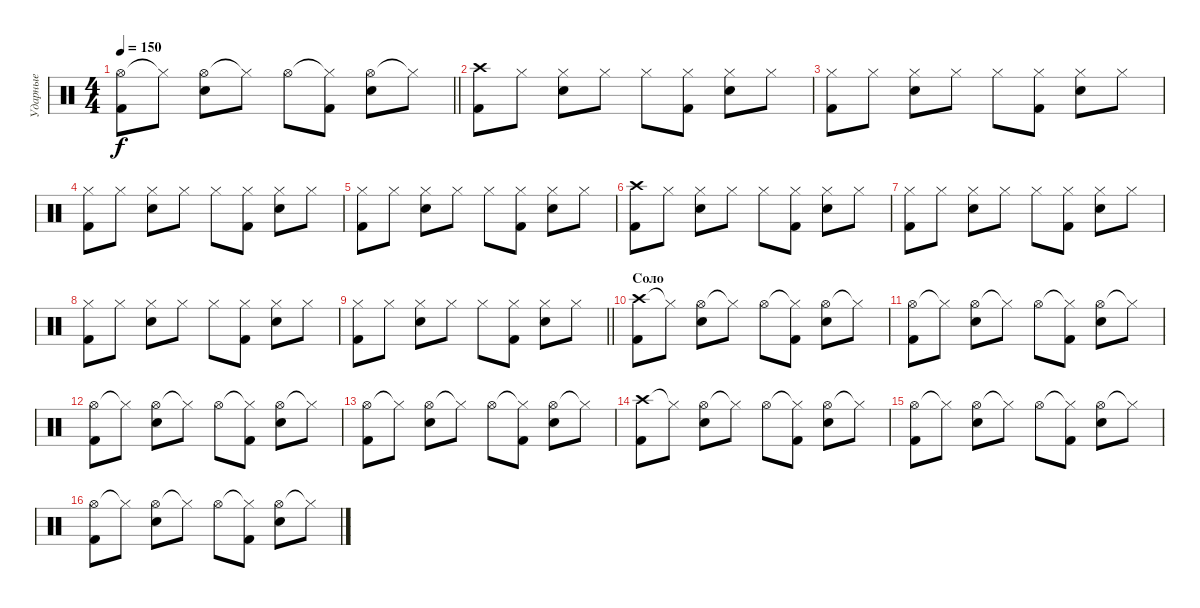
\track ("Ударные" "Ударные") {instrument percussion}
\staff {score}
\articulation defaults
\ts (4 4)
\tempo 150
\clef neutral
\barLineRight lightlight
\ks c
("Hi-Hat (open)" "Kick (hit) 2").8{dy f} "Hi-Hat (closed)"{t}.8 ("Hi-Hat (open)" "Snare (hit) 2").8 "Hi-Hat (closed)"{t}.8 "Hi-Hat (open)".8 ("Hi-Hat (closed)"{t} "Kick (hit) 2").8 ("Hi-Hat (open)" "Snare (hit) 2").8 "Hi-Hat (closed)"{t}.8 |
("Crash high (hit)" "Kick (hit) 2").8 "Hi-Hat (closed)".8 ("Hi-Hat (closed)" "Snare (hit) 2").8 "Hi-Hat (closed)".8 "Hi-Hat (closed)".8 ("Hi-Hat (closed)" "Kick (hit) 2").8 ("Hi-Hat (closed)" "Snare (hit) 2").8 "Hi-Hat (closed)".8 |
("Hi-Hat (closed)" "Kick (hit) 2").8 "Hi-Hat (closed)".8 ("Hi-Hat (closed)" "Snare (hit) 2").8 "Hi-Hat (closed)".8 "Hi-Hat (closed)".8 ("Hi-Hat (closed)" "Kick (hit) 2").8 ("Hi-Hat (closed)" "Snare (hit) 2").8 "Hi-Hat (closed)".8 |
("Hi-Hat (closed)" "Kick (hit) 2").8 "Hi-Hat (closed)".8 ("Hi-Hat (closed)" "Snare (hit) 2").8 "Hi-Hat (closed)".8 "Hi-Hat (closed)".8 ("Hi-Hat (closed)" "Kick (hit) 2").8 ("Hi-Hat (closed)" "Snare (hit) 2").8 "Hi-Hat (closed)".8 |
("Hi-Hat (closed)" "Kick (hit) 2").8 "Hi-Hat (closed)".8 ("Hi-Hat (closed)" "Snare (hit) 2").8 "Hi-Hat (closed)".8 "Hi-Hat (closed)".8 ("Hi-Hat (closed)" "Kick (hit) 2").8 ("Hi-Hat (closed)" "Snare (hit) 2").8 "Hi-Hat (closed)".8 |
("Crash high (hit)" "Kick (hit) 2").8 "Hi-Hat (closed)".8 ("Hi-Hat (closed)" "Snare (hit) 2").8 "Hi-Hat (closed)".8 "Hi-Hat (closed)".8 ("Hi-Hat (closed)" "Kick (hit) 2").8 ("Hi-Hat (closed)" "Snare (hit) 2").8 "Hi-Hat (closed)".8 |
("Hi-Hat (closed)" "Kick (hit) 2").8 "Hi-Hat (closed)".8 ("Hi-Hat (closed)" "Snare (hit) 2").8 "Hi-Hat (closed)".8 "Hi-Hat (closed)".8 ("Hi-Hat (closed)" "Kick (hit) 2").8 ("Hi-Hat (closed)" "Snare (hit) 2").8 "Hi-Hat (closed)".8 |
("Hi-Hat (closed)" "Kick (hit) 2").8 "Hi-Hat (closed)".8 ("Hi-Hat (closed)" "Snare (hit) 2").8 "Hi-Hat (closed)".8 "Hi-Hat (closed)".8 ("Hi-Hat (closed)" "Kick (hit) 2").8 ("Hi-Hat (closed)" "Snare (hit) 2").8 "Hi-Hat (closed)".8 |
\barLineRight lightlight
("Hi-Hat (closed)" "Kick (hit) 2").8 "Hi-Hat (closed)".8 ("Hi-Hat (closed)" "Snare (hit) 2").8 "Hi-Hat (closed)".8 "Hi-Hat (closed)".8 ("Hi-Hat (closed)" "Kick (hit) 2").8 ("Hi-Hat (closed)" "Snare (hit) 2").8 "Hi-Hat (closed)".8 |
\section ("" "Соло")
("Crash high (hit)" "Kick (hit) 2").8 "Hi-Hat (closed)"{t}.8 ("Hi-Hat (open)" "Snare (hit) 2").8 "Hi-Hat (closed)"{t}.8 "Hi-Hat (open)".8 ("Hi-Hat (closed)"{t} "Kick (hit) 2").8 ("Hi-Hat (open)" "Snare (hit) 2").8 "Hi-Hat (closed)"{t}.8 |
("Hi-Hat (open)" "Kick (hit) 2").8 "Hi-Hat (closed)"{t}.8 ("Hi-Hat (open)" "Snare (hit) 2").8 "Hi-Hat (closed)"{t}.8 "Hi-Hat (open)".8 ("Hi-Hat (closed)"{t} "Kick (hit) 2").8 ("Hi-Hat (open)" "Snare (hit) 2").8 "Hi-Hat (closed)"{t}.8 |
("Hi-Hat (open)" "Kick (hit) 2").8 "Hi-Hat (closed)"{t}.8 ("Hi-Hat (open)" "Snare (hit) 2").8 "Hi-Hat (closed)"{t}.8 "Hi-Hat (open)".8 ("Hi-Hat (closed)"{t} "Kick (hit) 2").8 ("Hi-Hat (open)" "Snare (hit) 2").8 "Hi-Hat (closed)"{t}.8 |
("Hi-Hat (open)" "Kick (hit) 2").8 "Hi-Hat (closed)"{t}.8 ("Hi-Hat (open)" "Snare (hit) 2").8 "Hi-Hat (closed)"{t}.8 "Hi-Hat (open)".8 ("Hi-Hat (closed)"{t} "Kick (hit) 2").8 ("Hi-Hat (open)" "Snare (hit) 2").8 "Hi-Hat (closed)"{t}.8 |
("Crash high (hit)" "Kick (hit) 2").8 "Hi-Hat (closed)"{t}.8 ("Hi-Hat (open)" "Snare (hit) 2").8 "Hi-Hat (closed)"{t}.8 "Hi-Hat (open)".8 ("Hi-Hat (closed)"{t} "Kick (hit) 2").8 ("Hi-Hat (open)" "Snare (hit) 2").8 "Hi-Hat (closed)"{t}.8 |
("Hi-Hat (open)" "Kick (hit) 2").8 "Hi-Hat (closed)"{t}.8 ("Hi-Hat (open)" "Snare (hit) 2").8 "Hi-Hat (closed)"{t}.8 "Hi-Hat (open)".8 ("Hi-Hat (closed)"{t} "Kick (hit) 2").8 ("Hi-Hat (open)" "Snare (hit) 2").8 "Hi-Hat (closed)"{t}.8 |
("Hi-Hat (open)" "Kick (hit) 2").8 "Hi-Hat (closed)"{t}.8 ("Hi-Hat (open)" "Snare (hit) 2").8 "Hi-Hat (closed)"{t}.8 "Hi-Hat (open)".8 ("Hi-Hat (closed)"{t} "Kick (hit) 2").8 ("Hi-Hat (open)" "Snare (hit) 2").8 "Hi-Hat (closed)"{t}.8
